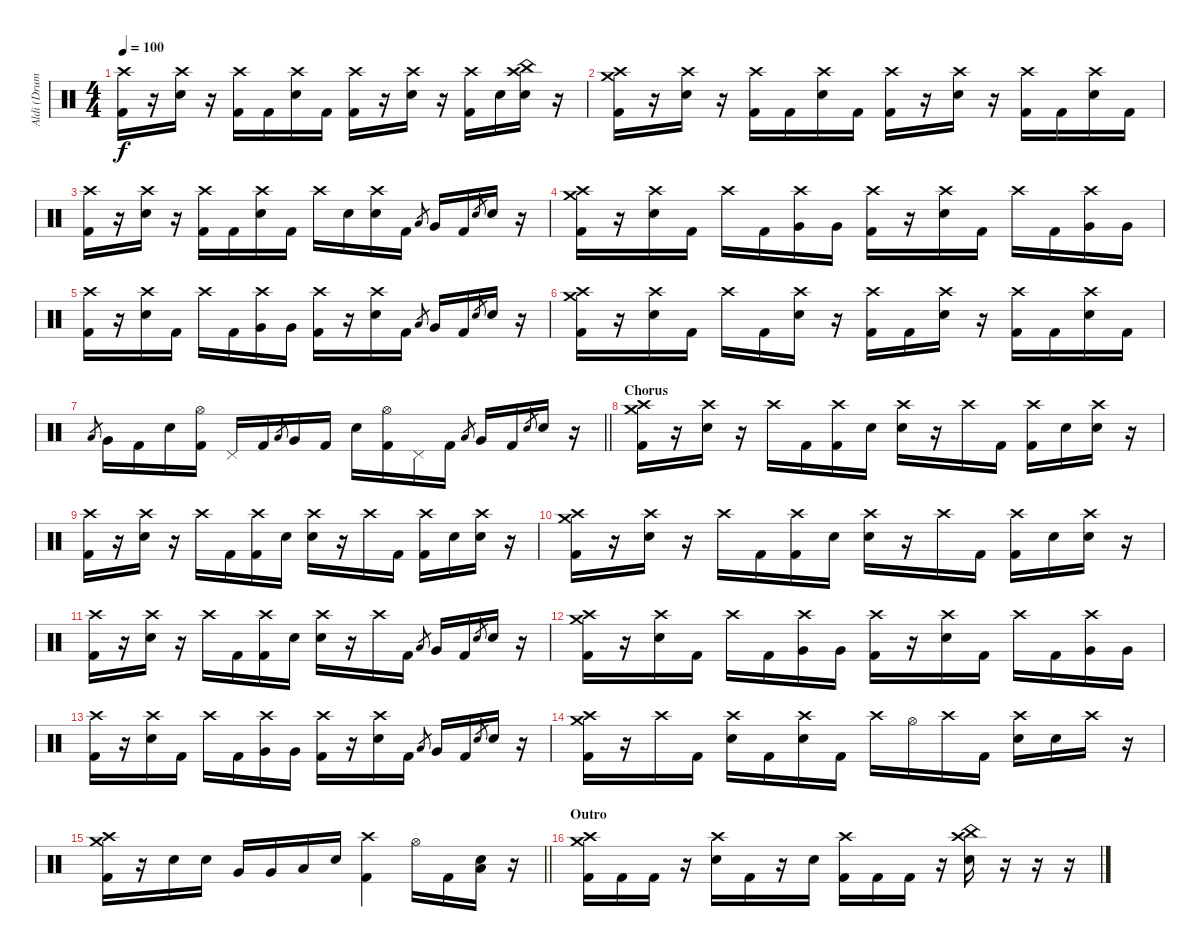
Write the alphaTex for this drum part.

\track ("Aldi (Drum)" "Aldi (Drum") {instrument percussion}
\staff {score}
\articulation defaults
\ts (4 4)
\tempo 100
\clef neutral
\ks c
("Crash high (hit)" "Kick (hit) 2").16{dy f} r.16 ("Crash high (hit)" "Electric Snare (hit)").16 r.16 ("Crash high (hit)" "Kick (hit) 2").16 "Kick (hit) 2".16 ("Crash high (hit)" "Electric Snare (hit)").16 "Kick (hit) 2".16 ("Crash high (hit)" "Kick (hit) 2").16 r.16 ("Crash high (hit)" "Electric Snare (hit)").16 r.16 ("Crash high (hit)" "Kick (hit) 2").16 "Electric Snare (hit)".16 ("China (hit)" "Crash high (hit)" "Electric Snare (hit)").16 r.16 |
("Crash medium (hit)" "Crash high (hit)" "Kick (hit) 2").16 r.16 ("Crash high (hit)" "Electric Snare (hit)").16 r.16 ("Crash high (hit)" "Kick (hit) 2").16 "Kick (hit) 2".16 ("Crash high (hit)" "Electric Snare (hit)").16 "Kick (hit) 2".16 ("Crash high (hit)" "Kick (hit) 2").16 r.16 ("Crash high (hit)" "Electric Snare (hit)").16 r.16 ("Crash high (hit)" "Kick (hit) 2").16 "Kick (hit) 2".16 ("Crash high (hit)" "Electric Snare (hit)").16 "Kick (hit) 2".16 |
("Crash high (hit)" "Kick (hit) 2").16 r.16 ("Crash high (hit)" "Electric Snare (hit)").16 r.16 ("Crash high (hit)" "Kick (hit) 2").16 "Kick (hit) 2".16 ("Crash high (hit)" "Electric Snare (hit)").16 "Kick (hit) 2".16 "Crash high (hit)".16 "Electric Snare (hit)".16 ("Crash high (hit)" "Electric Snare (hit)").16 "Kick (hit) 2".16 "Low Floor Tom (hit)".8{gr} "Very Low Tom (hit)".16 "Kick (hit) 2".16 "Electric Snare (hit)".8{gr} "Electric Snare (hit)".16 r.16 |
("Crash medium (hit)" "Crash high (hit)" "Kick (hit) 2").16 r.16 ("Crash high (hit)" "Electric Snare (hit)").16 "Kick (hit) 2".16 "Crash high (hit)".16 "Kick (hit) 2".16 ("Crash high (hit)" "Very Low Tom (hit)").16 "Very Low Tom (hit)".16 ("Crash high (hit)" "Kick (hit) 2").16 r.16 ("Crash high (hit)" "Electric Snare (hit)").16 "Kick (hit) 2".16 "Crash high (hit)".16 "Kick (hit) 2".16 ("Crash high (hit)" "Very Low Tom (hit)").16 "Very Low Tom (hit)".16 |
("Crash high (hit)" "Kick (hit) 2").16 r.16 ("Crash high (hit)" "Electric Snare (hit)").16 "Kick (hit) 2".16 "Crash high (hit)".16 "Kick (hit) 2".16 ("Crash high (hit)" "Very Low Tom (hit)").16 "Very Low Tom (hit)".16 ("Crash high (hit)" "Kick (hit) 2").16 r.16 ("Crash high (hit)" "Electric Snare (hit)").16 "Kick (hit) 2".16 "Low Floor Tom (hit)".8{gr} "Very Low Tom (hit)".16 "Kick (hit) 2".16 "Electric Snare (hit)".8{gr} "Electric Snare (hit)".16 r.16 |
("Crash medium (hit)" "Crash high (hit)" "Kick (hit) 2").16 r.16 ("Crash high (hit)" "Electric Snare (hit)").16 "Kick (hit) 2".16 "Crash high (hit)".16 "Kick (hit) 2".16 ("Crash high (hit)" "Electric Snare (hit)").16 r.16 ("Crash high (hit)" "Kick (hit) 2").16 "Kick (hit) 2".16 ("Crash high (hit)" "Electric Snare (hit)").16 r.16 ("Crash high (hit)" "Kick (hit) 2").16 "Kick (hit) 2".16 ("Crash high (hit)" "Electric Snare (hit)").16 "Kick (hit) 2".16 |
\barLineRight lightlight "Low Floor Tom (hit)".8{gr} "Very Low Tom (hit)".16 "Kick (hit) 2".16 "Electric Snare (hit)".16
("Hi-Hat (open)" "Kick (hit) 2").16 "Pedal Hi-Hat (hit)".16 "Kick (hit) 2".16 "Low Floor Tom (hit)".8{gr} "Very Low Tom (hit)".16 "Kick (hit) 2".16 "Electric Snare (hit)".16 ("Hi-Hat (open)" "Kick (hit) 2").16 "Pedal Hi-Hat (hit)".16 "Kick (hit) 2".16 "Low Floor Tom (hit)".8{gr} "Very Low Tom (hit)".16 "Kick (hit) 2".16 "Electric Snare (hit)".8{gr} "Electric Snare (hit)".16 r.16 |
\section ("" "Chorus")
("Crash medium (hit)" "Crash high (hit)" "Kick (hit) 2").16 r.16 ("Crash high (hit)" "Electric Snare (hit)").16 r.16 "Crash high (hit)".16 "Kick (hit) 2".16 ("Crash high (hit)" "Kick (hit) 2").16 "Electric Snare (hit)".16 ("Crash high (hit)" "Electric Snare (hit)").16 r.16 "Crash high (hit)".16 "Kick (hit) 2".16 ("Crash high (hit)" "Kick (hit) 2").16 "Electric Snare (hit)".16 ("Crash high (hit)" "Electric Snare (hit)").16 r.16 |
("Crash high (hit)" "Kick (hit) 2").16 r.16 ("Crash high (hit)" "Electric Snare (hit)").16 r.16 "Crash high (hit)".16 "Kick (hit) 2".16 ("Crash high (hit)" "Kick (hit) 2").16 "Electric Snare (hit)".16 ("Crash high (hit)" "Electric Snare (hit)").16 r.16 "Crash high (hit)".16 "Kick (hit) 2".16 ("Crash high (hit)" "Kick (hit) 2").16 "Electric Snare (hit)".16 ("Crash high (hit)" "Electric Snare (hit)").16 r.16 |
("Crash medium (hit)" "Crash high (hit)" "Kick (hit) 2").16 r.16 ("Crash high (hit)" "Electric Snare (hit)").16 r.16 "Crash high (hit)".16 "Kick (hit) 2".16 ("Crash high (hit)" "Kick (hit) 2").16 "Electric Snare (hit)".16 ("Crash high (hit)" "Electric Snare (hit)").16 r.16 "Crash high (hit)".16 "Kick (hit) 2".16 ("Crash high (hit)" "Kick (hit) 2").16 "Electric Snare (hit)".16 ("Crash high (hit)" "Electric Snare (hit)").16 r.16 |
("Crash high (hit)" "Kick (hit) 2").16 r.16 ("Crash high (hit)" "Electric Snare (hit)").16 r.16 "Crash high (hit)".16 "Kick (hit) 2".16 ("Crash high (hit)" "Kick (hit) 2").16 "Electric Snare (hit)".16 ("Crash high (hit)" "Electric Snare (hit)").16 r.16 "Crash high (hit)".16 "Kick (hit) 2".16 "Low Floor Tom (hit)".8{gr} "Very Low Tom (hit)".16 "Kick (hit) 2".16 "Electric Snare (hit)".8{gr} "Electric Snare (hit)".16 r.16 |
("Crash medium (hit)" "Crash high (hit)" "Kick (hit) 2").16 r.16 ("Crash high (hit)" "Electric Snare (hit)").16 "Kick (hit) 2".16 "Crash high (hit)".16 "Kick (hit) 2".16 ("Crash high (hit)" "Very Low Tom (hit)").16 "Very Low Tom (hit)".16 ("Crash high (hit)" "Kick (hit) 2").16 r.16 ("Crash high (hit)" "Electric Snare (hit)").16 "Kick (hit) 2".16 "Crash high (hit)".16 "Kick (hit) 2".16 ("Crash high (hit)" "Very Low Tom (hit)").16 "Very Low Tom (hit)".16 |
("Crash high (hit)" "Kick (hit) 2").16 r.16 ("Crash high (hit)" "Electric Snare (hit)").16 "Kick (hit) 2".16 "Crash high (hit)".16 "Kick (hit) 2".16 ("Crash high (hit)" "Very Low Tom (hit)").16 "Very Low Tom (hit)".16 ("Crash high (hit)" "Kick (hit) 2").16 r.16 ("Crash high (hit)" "Electric Snare (hit)").16 "Kick (hit) 2".16 "Low Floor Tom (hit)".8{gr} "Very Low Tom (hit)".16 "Kick (hit) 2".16 "Electric Snare (hit)".8{gr} "Electric Snare (hit)".16 r.16 |
("Crash medium (hit)" "Crash high (hit)" "Kick (hit) 2").16 r.16 "Crash high (hit)".16 "Kick (hit) 2".16 ("Crash high (hit)" "Electric Snare (hit)").16 "Kick (hit) 2".16 ("Crash high (hit)" "Electric Snare (hit)").16 "Kick (hit) 2".16 "Crash high (hit)".16 "Hi-Hat (open)".16 "Crash high (hit)".16 "Kick (hit) 2".16 ("Crash high (hit)" "Electric Snare (hit)").16 "Electric Snare (hit)".16 "Crash high (hit)".16 r.16 |
\barLineRight lightlight
("Crash medium (hit)" "Crash high (hit)" "Kick (hit) 2").16 r.16 "Electric Snare (hit)".16 "Electric Snare (hit)".16 "Very Low Tom (hit)".16 "Very Low Tom (hit)".16 "Low Floor Tom (hit)".16 "Electric Snare (hit)".16 ("Crash high (hit)" "Kick (hit) 2").4 "Hi-Hat (open)".16 "Kick (hit) 2".16 ("Electric Snare (hit)" "Low Floor Tom (hit)").16 r.16 |
\section ("" "Outro")
("Crash medium (hit)" "Crash high (hit)" "Kick (hit) 2").16 "Kick (hit) 2".16 "Kick (hit) 2".16 r.16 ("Crash high (hit)" "Electric Snare (hit)").16 "Kick (hit) 2".16 r.16 "Electric Snare (hit)".16 ("Crash high (hit)" "Kick (hit) 2").16 "Kick (hit) 2".16 "Kick (hit) 2".16 r.16 ("China (hit)" "Crash high (hit)" "Electric Snare (hit)").16 r.16 r.16 r.16
